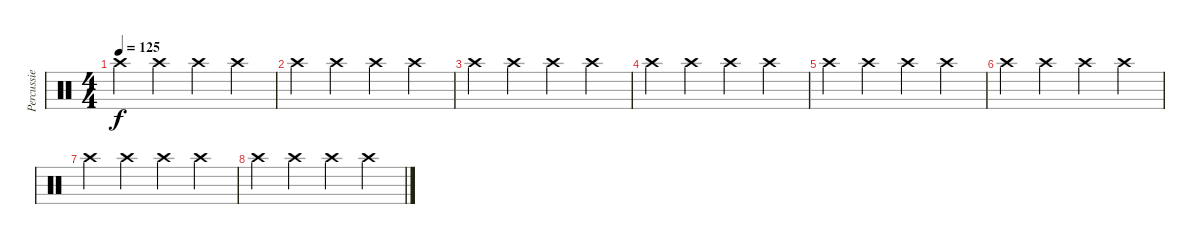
\track ("Percussie" "Percussie") {instrument percussion}
\staff {score}
\articulation defaults
\ts (4 4)
\tempo 125
\clef neutral
\ks c "Crash high (hit)".4{dy f} "Crash high (hit)".4 "Crash high (hit)".4 "Crash high (hit)".4
|
"Crash high (hit)".4 "Crash high (hit)".4 "Crash high (hit)".4 "Crash high (hit)".4 |
"Crash high (hit)".4 "Crash high (hit)".4 "Crash high (hit)".4 "Crash high (hit)".4 |
"Crash high (hit)".4 "Crash high (hit)".4 "Crash high (hit)".4 "Crash high (hit)".4 |
"Crash high (hit)".4 "Crash high (hit)".4 "Crash high (hit)".4 "Crash high (hit)".4 |
"Crash high (hit)".4 "Crash high (hit)".4 "Crash high (hit)".4 "Crash high (hit)".4 |
"Crash high (hit)".4 "Crash high (hit)".4 "Crash high (hit)".4 "Crash high (hit)".4 |
"Crash high (hit)".4 "Crash high (hit)".4 "Crash high (hit)".4 "Crash high (hit)".4
